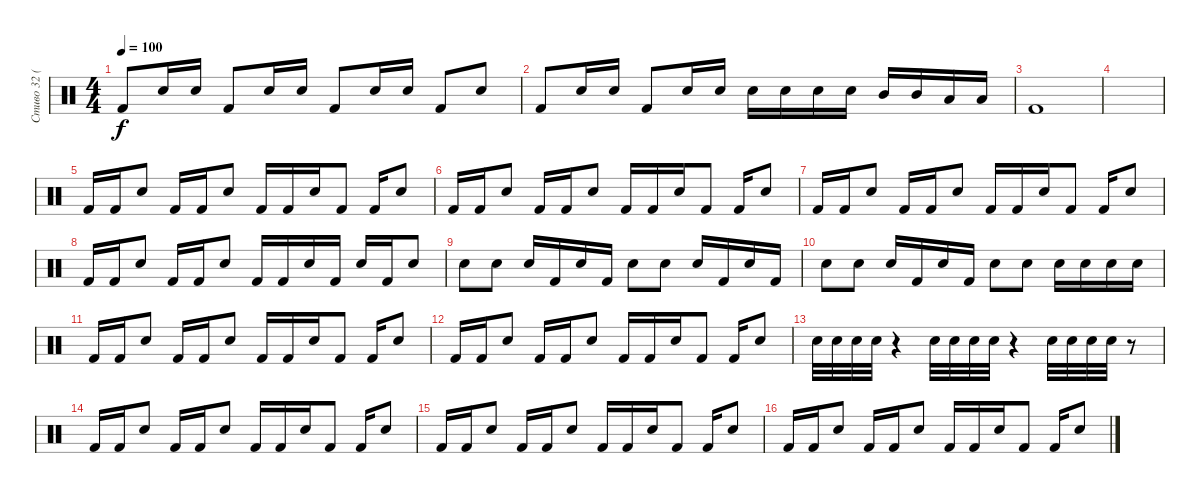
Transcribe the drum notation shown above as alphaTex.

\track ("Стиво 32 (Ударные)" "Стиво 32 (") {instrument percussion}
\staff {score}
\articulation defaults
\ts (4 4)
\tempo 100
\clef neutral
\ks c "Kick (hit) 2".8{dy f} "Electric Snare (hit)".16 "Electric Snare (hit)".16 "Kick (hit) 2".8 "Electric Snare (hit)".16 "Electric Snare (hit)".16 "Kick (hit) 2".8 "Electric Snare (hit)".16 "Electric Snare (hit)".16 "Kick (hit) 2".8 "Electric Snare (hit)".8
|
"Kick (hit) 2".8 "Electric Snare (hit)".16 "Electric Snare (hit)".16 "Kick (hit) 2".8 "Electric Snare (hit)".16 "Electric Snare (hit)".16 "Electric Snare (hit)".16 "Electric Snare (hit)".16 "Electric Snare (hit)".16 "Electric Snare (hit)".16 "Mid Tom (hit)".16 "Mid Tom (hit)".16 "Low Tom (hit)".16 "Low Tom (hit)".16 |
"Kick (hit) 2".1 |
|
"Kick (hit) 2".16 "Kick (hit) 2".16 "Electric Snare (hit)".8 "Kick (hit) 2".16 "Kick (hit) 2".16 "Electric Snare (hit)".8 "Kick (hit) 2".16 "Kick (hit) 2".16 "Electric Snare (hit)".16 "Kick (hit) 2".8 "Kick (hit) 2".16 "Electric Snare (hit)".8 |
"Kick (hit) 2".16 "Kick (hit) 2".16 "Electric Snare (hit)".8 "Kick (hit) 2".16 "Kick (hit) 2".16 "Electric Snare (hit)".8 "Kick (hit) 2".16 "Kick (hit) 2".16 "Electric Snare (hit)".16 "Kick (hit) 2".8 "Kick (hit) 2".16 "Electric Snare (hit)".8 |
"Kick (hit) 2".16 "Kick (hit) 2".16 "Electric Snare (hit)".8 "Kick (hit) 2".16 "Kick (hit) 2".16 "Electric Snare (hit)".8 "Kick (hit) 2".16 "Kick (hit) 2".16 "Electric Snare (hit)".16 "Kick (hit) 2".8 "Kick (hit) 2".16 "Electric Snare (hit)".8 |
"Kick (hit) 2".16 "Kick (hit) 2".16 "Electric Snare (hit)".8 "Kick (hit) 2".16 "Kick (hit) 2".16 "Electric Snare (hit)".8 "Kick (hit) 2".16 "Kick (hit) 2".16 "Electric Snare (hit)".16 "Kick (hit) 2".16 "Electric Snare (hit)".16 "Kick (hit) 2".16 "Electric Snare (hit)".8 |
"Electric Snare (hit)".8 "Electric Snare (hit)".8 "Electric Snare (hit)".16 "Kick (hit) 2".16 "Electric Snare (hit)".16 "Kick (hit) 2".16 "Electric Snare (hit)".8 "Electric Snare (hit)".8 "Electric Snare (hit)".16 "Kick (hit) 2".16 "Electric Snare (hit)".16 "Kick (hit) 2".16 |
"Electric Snare (hit)".8 "Electric Snare (hit)".8 "Electric Snare (hit)".16 "Kick (hit) 2".16 "Electric Snare (hit)".16 "Kick (hit) 2".16 "Electric Snare (hit)".8 "Electric Snare (hit)".8 "Electric Snare (hit)".16 "Electric Snare (hit)".16 "Electric Snare (hit)".16 "Electric Snare (hit)".16 |
"Kick (hit) 2".16 "Kick (hit) 2".16 "Electric Snare (hit)".8 "Kick (hit) 2".16 "Kick (hit) 2".16 "Electric Snare (hit)".8 "Kick (hit) 2".16 "Kick (hit) 2".16 "Electric Snare (hit)".16 "Kick (hit) 2".8 "Kick (hit) 2".16 "Electric Snare (hit)".8 |
"Kick (hit) 2".16 "Kick (hit) 2".16 "Electric Snare (hit)".8 "Kick (hit) 2".16 "Kick (hit) 2".16 "Electric Snare (hit)".8 "Kick (hit) 2".16 "Kick (hit) 2".16 "Electric Snare (hit)".16 "Kick (hit) 2".8 "Kick (hit) 2".16 "Electric Snare (hit)".8 |
"Electric Snare (hit)".32 "Electric Snare (hit)".32 "Electric Snare (hit)".32 "Electric Snare (hit)".32 r.4 "Electric Snare (hit)".32 "Electric Snare (hit)".32 "Electric Snare (hit)".32 "Electric Snare (hit)".32 r.4 "Electric Snare (hit)".32 "Electric Snare (hit)".32 "Electric Snare (hit)".32 "Electric Snare (hit)".32 r.8 |
"Kick (hit) 2".16 "Kick (hit) 2".16 "Electric Snare (hit)".8 "Kick (hit) 2".16 "Kick (hit) 2".16 "Electric Snare (hit)".8 "Kick (hit) 2".16 "Kick (hit) 2".16 "Electric Snare (hit)".16 "Kick (hit) 2".8 "Kick (hit) 2".16 "Electric Snare (hit)".8 |
"Kick (hit) 2".16 "Kick (hit) 2".16 "Electric Snare (hit)".8 "Kick (hit) 2".16 "Kick (hit) 2".16 "Electric Snare (hit)".8 "Kick (hit) 2".16 "Kick (hit) 2".16 "Electric Snare (hit)".16 "Kick (hit) 2".8 "Kick (hit) 2".16 "Electric Snare (hit)".8 |
"Kick (hit) 2".16 "Kick (hit) 2".16 "Electric Snare (hit)".8 "Kick (hit) 2".16 "Kick (hit) 2".16 "Electric Snare (hit)".8 "Kick (hit) 2".16 "Kick (hit) 2".16 "Electric Snare (hit)".16 "Kick (hit) 2".8 "Kick (hit) 2".16 "Electric Snare (hit)".8
